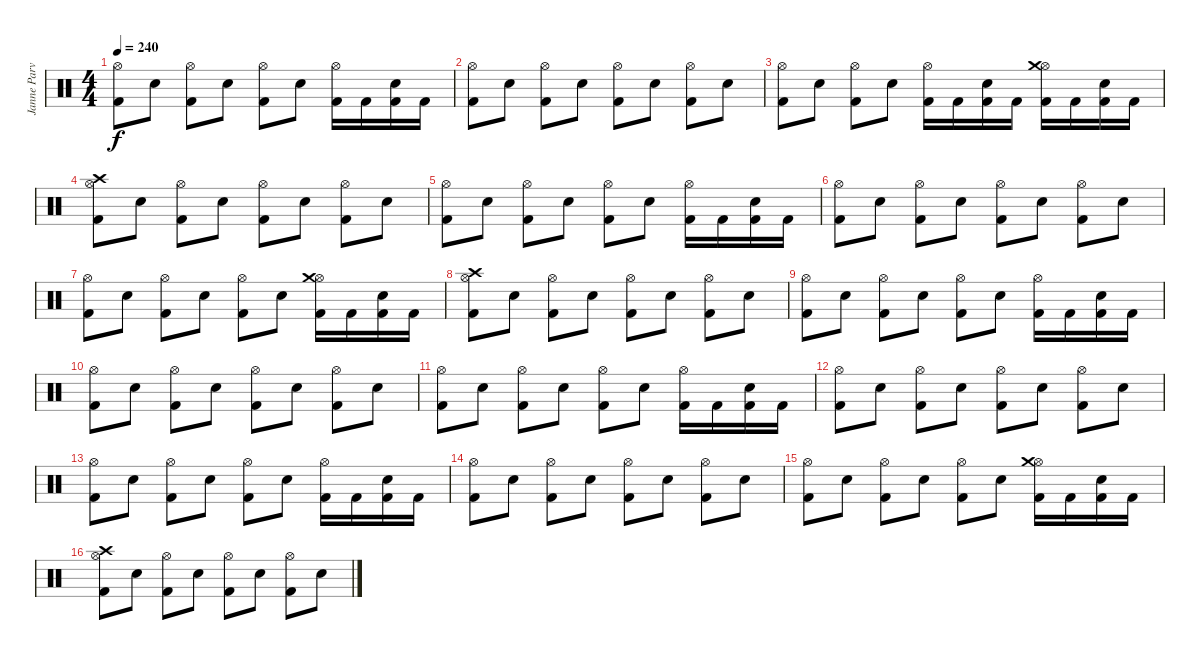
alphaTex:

\track ("Janne Parviainen" "Janne Parv") {instrument percussion}
\staff {score}
\articulation defaults
\ts (4 4)
\tempo 240
\clef neutral
\ks c
("Kick (hit) 2" "Hi-Hat (open)").8{dy f} "Electric Snare (hit)".8 ("Kick (hit) 2" "Hi-Hat (open)").8 "Electric Snare (hit)".8 ("Kick (hit) 2" "Hi-Hat (open)").8 "Electric Snare (hit)".8 ("Kick (hit) 2" "Hi-Hat (open)").16 "Kick (hit) 2".16 ("Electric Snare (hit)" "Kick (hit) 2").16 "Kick (hit) 2".16 |
("Kick (hit) 2" "Hi-Hat (open)").8 "Electric Snare (hit)".8 ("Kick (hit) 2" "Hi-Hat (open)").8 "Electric Snare (hit)".8 ("Kick (hit) 2" "Hi-Hat (open)").8 "Electric Snare (hit)".8 ("Kick (hit) 2" "Hi-Hat (open)").8 "Electric Snare (hit)".8 |
("Kick (hit) 2" "Hi-Hat (open)").8 "Electric Snare (hit)".8 ("Kick (hit) 2" "Hi-Hat (open)").8 "Electric Snare (hit)".8 ("Kick (hit) 2" "Hi-Hat (open)").16 "Kick (hit) 2".16 ("Electric Snare (hit)" "Kick (hit) 2").16 "Kick (hit) 2".16 ("Kick (hit) 2" "Hi-Hat (open)" "Crash medium (hit)").16 "Kick (hit) 2".16 ("Electric Snare (hit)" "Kick (hit) 2").16 "Kick (hit) 2".16 |
("Kick (hit) 2" "Hi-Hat (open)" "Crash high (hit)").8 "Electric Snare (hit)".8 ("Kick (hit) 2" "Hi-Hat (open)").8 "Electric Snare (hit)".8 ("Kick (hit) 2" "Hi-Hat (open)").8 "Electric Snare (hit)".8 ("Kick (hit) 2" "Hi-Hat (open)").8 "Electric Snare (hit)".8 |
("Kick (hit) 2" "Hi-Hat (open)").8 "Electric Snare (hit)".8 ("Kick (hit) 2" "Hi-Hat (open)").8 "Electric Snare (hit)".8 ("Kick (hit) 2" "Hi-Hat (open)").8 "Electric Snare (hit)".8 ("Kick (hit) 2" "Hi-Hat (open)").16 "Kick (hit) 2".16 ("Electric Snare (hit)" "Kick (hit) 2").16 "Kick (hit) 2".16 |
("Kick (hit) 2" "Hi-Hat (open)").8 "Electric Snare (hit)".8 ("Kick (hit) 2" "Hi-Hat (open)").8 "Electric Snare (hit)".8 ("Kick (hit) 2" "Hi-Hat (open)").8 "Electric Snare (hit)".8 ("Kick (hit) 2" "Hi-Hat (open)").8 "Electric Snare (hit)".8 |
("Kick (hit) 2" "Hi-Hat (open)").8 "Electric Snare (hit)".8 ("Kick (hit) 2" "Hi-Hat (open)").8 "Electric Snare (hit)".8 ("Kick (hit) 2" "Hi-Hat (open)").8 "Electric Snare (hit)".8 ("Kick (hit) 2" "Hi-Hat (open)" "Crash medium (hit)").16 "Kick (hit) 2".16 ("Electric Snare (hit)" "Kick (hit) 2").16 "Kick (hit) 2".16 |
("Kick (hit) 2" "Hi-Hat (open)" "Crash high (hit)").8 "Electric Snare (hit)".8 ("Kick (hit) 2" "Hi-Hat (open)").8 "Electric Snare (hit)".8 ("Kick (hit) 2" "Hi-Hat (open)").8 "Electric Snare (hit)".8 ("Kick (hit) 2" "Hi-Hat (open)").8 "Electric Snare (hit)".8 |
("Kick (hit) 2" "Hi-Hat (open)").8 "Electric Snare (hit)".8 ("Kick (hit) 2" "Hi-Hat (open)").8 "Electric Snare (hit)".8 ("Kick (hit) 2" "Hi-Hat (open)").8 "Electric Snare (hit)".8 ("Kick (hit) 2" "Hi-Hat (open)").16 "Kick (hit) 2".16 ("Electric Snare (hit)" "Kick (hit) 2").16 "Kick (hit) 2".16 |
("Kick (hit) 2" "Hi-Hat (open)").8 "Electric Snare (hit)".8 ("Kick (hit) 2" "Hi-Hat (open)").8 "Electric Snare (hit)".8 ("Kick (hit) 2" "Hi-Hat (open)").8 "Electric Snare (hit)".8 ("Kick (hit) 2" "Hi-Hat (open)").8 "Electric Snare (hit)".8 |
("Kick (hit) 2" "Hi-Hat (open)").8 "Electric Snare (hit)".8 ("Kick (hit) 2" "Hi-Hat (open)").8 "Electric Snare (hit)".8 ("Kick (hit) 2" "Hi-Hat (open)").8 "Electric Snare (hit)".8 ("Kick (hit) 2" "Hi-Hat (open)").16 "Kick (hit) 2".16 ("Electric Snare (hit)" "Kick (hit) 2").16 "Kick (hit) 2".16 |
("Kick (hit) 2" "Hi-Hat (open)").8 "Electric Snare (hit)".8 ("Kick (hit) 2" "Hi-Hat (open)").8 "Electric Snare (hit)".8 ("Kick (hit) 2" "Hi-Hat (open)").8 "Electric Snare (hit)".8 ("Kick (hit) 2" "Hi-Hat (open)").8 "Electric Snare (hit)".8 |
("Kick (hit) 2" "Hi-Hat (open)").8 "Electric Snare (hit)".8 ("Kick (hit) 2" "Hi-Hat (open)").8 "Electric Snare (hit)".8 ("Kick (hit) 2" "Hi-Hat (open)").8 "Electric Snare (hit)".8 ("Kick (hit) 2" "Hi-Hat (open)").16 "Kick (hit) 2".16 ("Electric Snare (hit)" "Kick (hit) 2").16 "Kick (hit) 2".16 |
("Kick (hit) 2" "Hi-Hat (open)").8 "Electric Snare (hit)".8 ("Kick (hit) 2" "Hi-Hat (open)").8 "Electric Snare (hit)".8 ("Kick (hit) 2" "Hi-Hat (open)").8 "Electric Snare (hit)".8 ("Kick (hit) 2" "Hi-Hat (open)").8 "Electric Snare (hit)".8 |
("Kick (hit) 2" "Hi-Hat (open)").8 "Electric Snare (hit)".8 ("Kick (hit) 2" "Hi-Hat (open)").8 "Electric Snare (hit)".8 ("Kick (hit) 2" "Hi-Hat (open)").8 "Electric Snare (hit)".8 ("Kick (hit) 2" "Hi-Hat (open)" "Crash medium (hit)").16 "Kick (hit) 2".16 ("Electric Snare (hit)" "Kick (hit) 2").16 "Kick (hit) 2".16 |
("Kick (hit) 2" "Hi-Hat (open)" "Crash high (hit)").8 "Electric Snare (hit)".8 ("Kick (hit) 2" "Hi-Hat (open)").8 "Electric Snare (hit)".8 ("Kick (hit) 2" "Hi-Hat (open)").8 "Electric Snare (hit)".8 ("Kick (hit) 2" "Hi-Hat (open)").8 "Electric Snare (hit)".8
